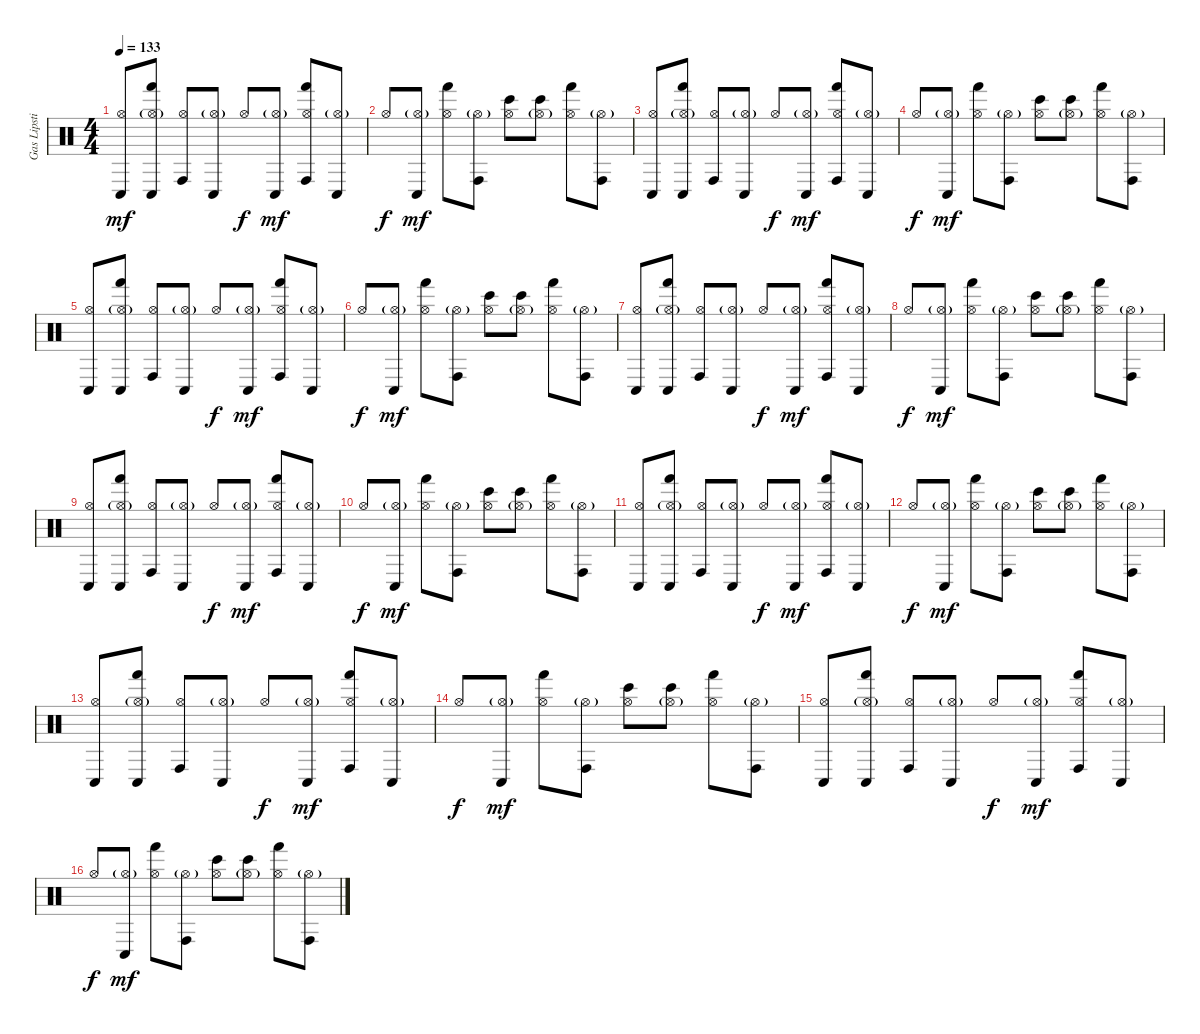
\track ("Gas Lipstick (Drums)" "Gas Lipsti") {instrument percussion}
\staff {score}
\articulation defaults
\ts (4 4)
\tempo 133
\clef neutral
\ks c
("Hi-Hat (open)" "Conga low (hit)").8{dy mf} ("Hi-Hat (open)"{g} "Hand (hit)" "Conga low (hit)").8 ("Hi-Hat (open)" "Conga high (hit)").8 ("Hi-Hat (open)"{g} "Conga low (hit)").8 "Hi-Hat (open)".8{dy f} ("Hi-Hat (open)"{g} "Conga low (hit)").8{dy mf} ("Hi-Hat (open)" "Hand (hit)" "Conga high (hit)").8 ("Hi-Hat (open)"{g} "Conga low (hit)").8 |
"Hi-Hat (open)".8{dy f} ("Hi-Hat (open)"{g} "Conga low (hit)").8{dy mf} ("Hi-Hat (open)" "Hand (hit)").8 ("Hi-Hat (open)"{g} "Conga high (hit)").8 ("Hi-Hat (open)" "Bongo High (hit)").8 ("Hi-Hat (open)"{g} "Bongo High (hit)").8 ("Hi-Hat (open)" "Hand (hit)").8 ("Hi-Hat (open)"{g} "Conga high (hit)").8 |
("Hi-Hat (open)" "Conga low (hit)").8 ("Hi-Hat (open)"{g} "Hand (hit)" "Conga low (hit)").8 ("Hi-Hat (open)" "Conga high (hit)").8 ("Hi-Hat (open)"{g} "Conga low (hit)").8 "Hi-Hat (open)".8{dy f} ("Hi-Hat (open)"{g} "Conga low (hit)").8{dy mf} ("Hi-Hat (open)" "Hand (hit)" "Conga high (hit)").8 ("Hi-Hat (open)"{g} "Conga low (hit)").8 |
"Hi-Hat (open)".8{dy f} ("Hi-Hat (open)"{g} "Conga low (hit)").8{dy mf} ("Hi-Hat (open)" "Hand (hit)").8 ("Hi-Hat (open)"{g} "Conga high (hit)").8 ("Hi-Hat (open)" "Bongo High (hit)").8 ("Hi-Hat (open)"{g} "Bongo High (hit)").8 ("Hi-Hat (open)" "Hand (hit)").8 ("Hi-Hat (open)"{g} "Conga high (hit)").8 |
("Hi-Hat (open)" "Conga low (hit)").8 ("Hi-Hat (open)"{g} "Hand (hit)" "Conga low (hit)").8 ("Hi-Hat (open)" "Conga high (hit)").8 ("Hi-Hat (open)"{g} "Conga low (hit)").8 "Hi-Hat (open)".8{dy f} ("Hi-Hat (open)"{g} "Conga low (hit)").8{dy mf} ("Hi-Hat (open)" "Hand (hit)" "Conga high (hit)").8 ("Hi-Hat (open)"{g} "Conga low (hit)").8 |
"Hi-Hat (open)".8{dy f} ("Hi-Hat (open)"{g} "Conga low (hit)").8{dy mf} ("Hi-Hat (open)" "Hand (hit)").8 ("Hi-Hat (open)"{g} "Conga high (hit)").8 ("Hi-Hat (open)" "Bongo High (hit)").8 ("Hi-Hat (open)"{g} "Bongo High (hit)").8 ("Hi-Hat (open)" "Hand (hit)").8 ("Hi-Hat (open)"{g} "Conga high (hit)").8 |
("Hi-Hat (open)" "Conga low (hit)").8 ("Hi-Hat (open)"{g} "Hand (hit)" "Conga low (hit)").8 ("Hi-Hat (open)" "Conga high (hit)").8 ("Hi-Hat (open)"{g} "Conga low (hit)").8 "Hi-Hat (open)".8{dy f} ("Hi-Hat (open)"{g} "Conga low (hit)").8{dy mf} ("Hi-Hat (open)" "Hand (hit)" "Conga high (hit)").8 ("Hi-Hat (open)"{g} "Conga low (hit)").8 |
"Hi-Hat (open)".8{dy f} ("Hi-Hat (open)"{g} "Conga low (hit)").8{dy mf} ("Hi-Hat (open)" "Hand (hit)").8 ("Hi-Hat (open)"{g} "Conga high (hit)").8 ("Hi-Hat (open)" "Bongo High (hit)").8 ("Hi-Hat (open)"{g} "Bongo High (hit)").8 ("Hi-Hat (open)" "Hand (hit)").8 ("Hi-Hat (open)"{g} "Conga high (hit)").8 |
("Hi-Hat (open)" "Conga low (hit)").8 ("Hi-Hat (open)"{g} "Hand (hit)" "Conga low (hit)").8 ("Hi-Hat (open)" "Conga high (hit)").8 ("Hi-Hat (open)"{g} "Conga low (hit)").8 "Hi-Hat (open)".8{dy f} ("Hi-Hat (open)"{g} "Conga low (hit)").8{dy mf} ("Hi-Hat (open)" "Hand (hit)" "Conga high (hit)").8 ("Hi-Hat (open)"{g} "Conga low (hit)").8 |
"Hi-Hat (open)".8{dy f} ("Hi-Hat (open)"{g} "Conga low (hit)").8{dy mf} ("Hi-Hat (open)" "Hand (hit)").8 ("Hi-Hat (open)"{g} "Conga high (hit)").8 ("Hi-Hat (open)" "Bongo High (hit)").8 ("Hi-Hat (open)"{g} "Bongo High (hit)").8 ("Hi-Hat (open)" "Hand (hit)").8 ("Hi-Hat (open)"{g} "Conga high (hit)").8 |
("Hi-Hat (open)" "Conga low (hit)").8 ("Hi-Hat (open)"{g} "Hand (hit)" "Conga low (hit)").8 ("Hi-Hat (open)" "Conga high (hit)").8 ("Hi-Hat (open)"{g} "Conga low (hit)").8 "Hi-Hat (open)".8{dy f} ("Hi-Hat (open)"{g} "Conga low (hit)").8{dy mf} ("Hi-Hat (open)" "Hand (hit)" "Conga high (hit)").8 ("Hi-Hat (open)"{g} "Conga low (hit)").8 |
"Hi-Hat (open)".8{dy f} ("Hi-Hat (open)"{g} "Conga low (hit)").8{dy mf} ("Hi-Hat (open)" "Hand (hit)").8 ("Hi-Hat (open)"{g} "Conga high (hit)").8 ("Hi-Hat (open)" "Bongo High (hit)").8 ("Hi-Hat (open)"{g} "Bongo High (hit)").8 ("Hi-Hat (open)" "Hand (hit)").8 ("Hi-Hat (open)"{g} "Conga high (hit)").8 |
("Hi-Hat (open)" "Conga low (hit)").8 ("Hi-Hat (open)"{g} "Hand (hit)" "Conga low (hit)").8 ("Hi-Hat (open)" "Conga high (hit)").8 ("Hi-Hat (open)"{g} "Conga low (hit)").8 "Hi-Hat (open)".8{dy f} ("Hi-Hat (open)"{g} "Conga low (hit)").8{dy mf} ("Hi-Hat (open)" "Hand (hit)" "Conga high (hit)").8 ("Hi-Hat (open)"{g} "Conga low (hit)").8 |
"Hi-Hat (open)".8{dy f} ("Hi-Hat (open)"{g} "Conga low (hit)").8{dy mf} ("Hi-Hat (open)" "Hand (hit)").8 ("Hi-Hat (open)"{g} "Conga high (hit)").8 ("Hi-Hat (open)" "Bongo High (hit)").8 ("Hi-Hat (open)"{g} "Bongo High (hit)").8 ("Hi-Hat (open)" "Hand (hit)").8 ("Hi-Hat (open)"{g} "Conga high (hit)").8 |
("Hi-Hat (open)" "Conga low (hit)").8 ("Hi-Hat (open)"{g} "Hand (hit)" "Conga low (hit)").8 ("Hi-Hat (open)" "Conga high (hit)").8 ("Hi-Hat (open)"{g} "Conga low (hit)").8 "Hi-Hat (open)".8{dy f} ("Hi-Hat (open)"{g} "Conga low (hit)").8{dy mf} ("Hi-Hat (open)" "Hand (hit)" "Conga high (hit)").8 ("Hi-Hat (open)"{g} "Conga low (hit)").8 |
"Hi-Hat (open)".8{dy f} ("Hi-Hat (open)"{g} "Conga low (hit)").8{dy mf} ("Hi-Hat (open)" "Hand (hit)").8 ("Hi-Hat (open)"{g} "Conga high (hit)").8 ("Hi-Hat (open)" "Bongo High (hit)").8 ("Hi-Hat (open)"{g} "Bongo High (hit)").8 ("Hi-Hat (open)" "Hand (hit)").8 ("Hi-Hat (open)"{g} "Conga high (hit)").8
